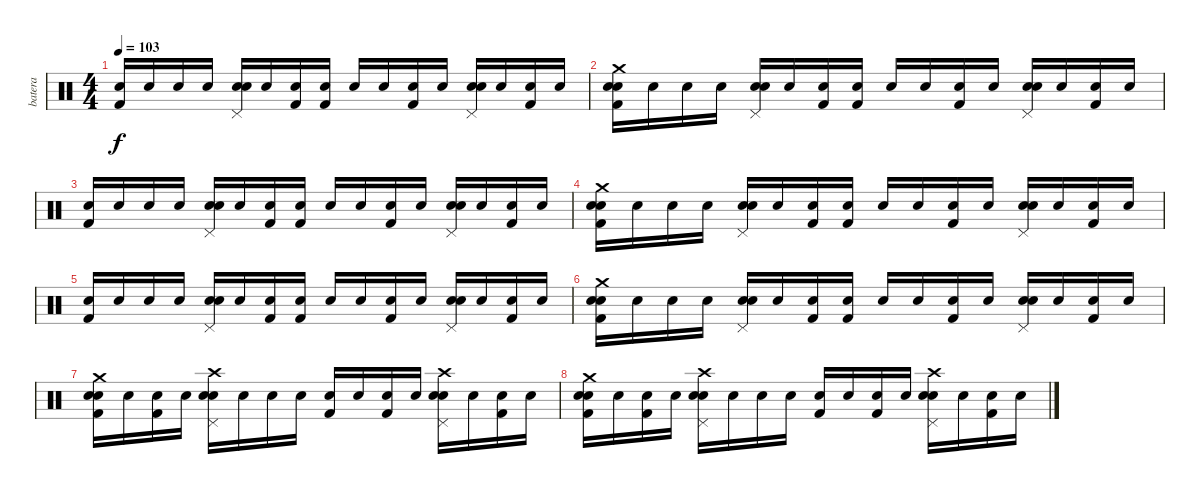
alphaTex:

\track ("batera" "batera") {instrument percussion}
\staff {score}
\articulation defaults
\ts (4 4)
\tempo 103
\clef neutral
\ks c
("Snare (hit)" "Kick (hit) 2").16{dy f} "Snare (hit)".16 "Snare (hit)".16 "Snare (hit)".16 ("Snare (hit)" "Pedal Hi-Hat (hit)" "Snare (hit) 2").16 "Snare (hit)".16 ("Snare (hit)" "Kick (hit) 2").16 ("Snare (hit)" "Kick (hit) 2").16 "Snare (hit)".16 "Snare (hit)".16 ("Snare (hit)" "Kick (hit) 2").16 "Snare (hit)".16 ("Snare (hit)" "Pedal Hi-Hat (hit)" "Snare (hit) 2").16 "Snare (hit)".16 ("Snare (hit)" "Kick (hit) 2").16 "Snare (hit)".16 |
("Snare (hit)" "Crash medium (hit)" "Kick (hit) 2" "Snare (hit) 2").16 "Snare (hit)".16 "Snare (hit)".16 "Snare (hit)".16 ("Snare (hit)" "Pedal Hi-Hat (hit)" "Snare (hit) 2").16 "Snare (hit)".16 ("Snare (hit)" "Kick (hit) 2").16 ("Snare (hit)" "Kick (hit) 2").16 "Snare (hit)".16 "Snare (hit)".16 ("Snare (hit)" "Kick (hit) 2").16 "Snare (hit)".16 ("Snare (hit)" "Pedal Hi-Hat (hit)" "Snare (hit) 2").16 "Snare (hit)".16 ("Snare (hit)" "Kick (hit) 2").16 "Snare (hit)".16 |
("Snare (hit)" "Kick (hit) 2").16 "Snare (hit)".16 "Snare (hit)".16 "Snare (hit)".16 ("Snare (hit)" "Pedal Hi-Hat (hit)" "Snare (hit) 2").16 "Snare (hit)".16 ("Snare (hit)" "Kick (hit) 2").16 ("Snare (hit)" "Kick (hit) 2").16 "Snare (hit)".16 "Snare (hit)".16 ("Snare (hit)" "Kick (hit) 2").16 "Snare (hit)".16 ("Snare (hit)" "Pedal Hi-Hat (hit)" "Snare (hit) 2").16 "Snare (hit)".16 ("Snare (hit)" "Kick (hit) 2").16 "Snare (hit)".16 |
("Snare (hit)" "Crash medium (hit)" "Kick (hit) 2" "Snare (hit) 2").16 "Snare (hit)".16 "Snare (hit)".16 "Snare (hit)".16 ("Snare (hit)" "Pedal Hi-Hat (hit)" "Snare (hit) 2").16 "Snare (hit)".16 ("Snare (hit)" "Kick (hit) 2").16 ("Snare (hit)" "Kick (hit) 2").16 "Snare (hit)".16 "Snare (hit)".16 ("Snare (hit)" "Kick (hit) 2").16 "Snare (hit)".16 ("Snare (hit)" "Pedal Hi-Hat (hit)" "Snare (hit) 2").16 "Snare (hit)".16 ("Snare (hit)" "Kick (hit) 2").16 "Snare (hit)".16 |
("Snare (hit)" "Kick (hit) 2").16 "Snare (hit)".16 "Snare (hit)".16 "Snare (hit)".16 ("Snare (hit)" "Pedal Hi-Hat (hit)" "Snare (hit) 2").16 "Snare (hit)".16 ("Snare (hit)" "Kick (hit) 2").16 ("Snare (hit)" "Kick (hit) 2").16 "Snare (hit)".16 "Snare (hit)".16 ("Snare (hit)" "Kick (hit) 2").16 "Snare (hit)".16 ("Snare (hit)" "Pedal Hi-Hat (hit)" "Snare (hit) 2").16 "Snare (hit)".16 ("Snare (hit)" "Kick (hit) 2").16 "Snare (hit)".16 |
("Snare (hit)" "Crash medium (hit)" "Kick (hit) 2" "Snare (hit) 2").16 "Snare (hit)".16 "Snare (hit)".16 "Snare (hit)".16 ("Snare (hit)" "Pedal Hi-Hat (hit)" "Snare (hit) 2").16 "Snare (hit)".16 ("Snare (hit)" "Kick (hit) 2").16 ("Snare (hit)" "Kick (hit) 2").16 "Snare (hit)".16 "Snare (hit)".16 ("Snare (hit)" "Kick (hit) 2").16 "Snare (hit)".16 ("Snare (hit)" "Pedal Hi-Hat (hit)" "Snare (hit) 2").16 "Snare (hit)".16 ("Snare (hit)" "Kick (hit) 2").16 "Snare (hit)".16 |
("Snare (hit)" "Crash medium (hit)" "Kick (hit) 2" "Snare (hit) 2").16 "Snare (hit)".16 ("Snare (hit)" "Kick (hit) 2").16 "Snare (hit)".16 ("Snare (hit)" "Crash high (hit)" "Pedal Hi-Hat (hit)" "Snare (hit) 2").16 "Snare (hit)".16 "Snare (hit)".16 "Snare (hit)".16 ("Snare (hit)" "Kick (hit) 2").16 "Snare (hit)".16 ("Snare (hit)" "Kick (hit) 2").16 "Snare (hit)".16 ("Snare (hit)" "Crash high (hit)" "Pedal Hi-Hat (hit)" "Snare (hit) 2").16 "Snare (hit)".16 ("Snare (hit)" "Kick (hit) 2").16 "Snare (hit)".16 |
("Snare (hit)" "Crash medium (hit)" "Kick (hit) 2" "Snare (hit) 2").16 "Snare (hit)".16 ("Snare (hit)" "Kick (hit) 2").16 "Snare (hit)".16 ("Snare (hit)" "Crash high (hit)" "Pedal Hi-Hat (hit)" "Snare (hit) 2").16 "Snare (hit)".16 "Snare (hit)".16 "Snare (hit)".16 ("Snare (hit)" "Kick (hit) 2").16 "Snare (hit)".16 ("Snare (hit)" "Kick (hit) 2").16 "Snare (hit)".16 ("Snare (hit)" "Crash high (hit)" "Pedal Hi-Hat (hit)" "Snare (hit) 2").16 "Snare (hit)".16 ("Snare (hit)" "Kick (hit) 2").16 "Snare (hit)".16
